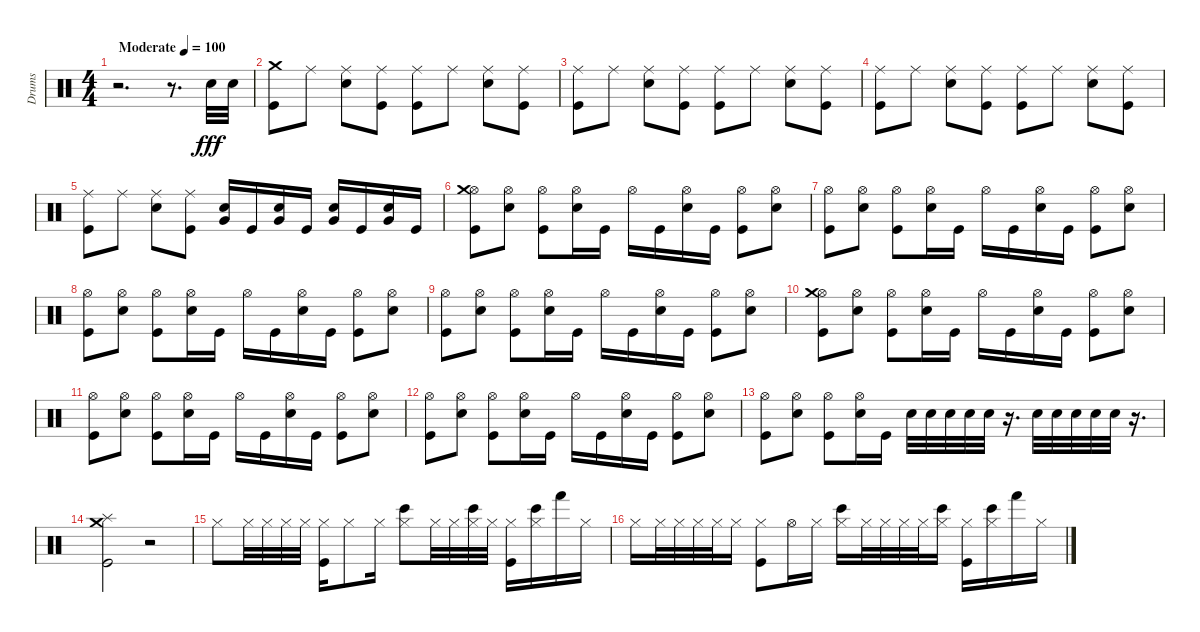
\track ("Drums" "Drums") {instrument percussion}
\staff {score}
\articulation defaults
\ts (4 4)
\tempo (100 "Moderate")
\clef neutral
\ks c
r.2{d dy fff} r.8{d} "Snare (hit) 2".32 "Snare (hit) 2".32 |
("Kick (hit)" "Crash medium (hit)").8 "Ride (middle)".8 ("Snare (hit) 2" "Ride (middle)").8 ("Kick (hit)" "Ride (middle)").8 ("Kick (hit)" "Ride (middle)").8 "Ride (middle)".8 ("Snare (hit) 2" "Ride (middle)").8 ("Kick (hit)" "Ride (middle)").8 |
("Kick (hit)" "Ride (middle)").8 "Ride (middle)".8 ("Snare (hit) 2" "Ride (middle)").8 ("Kick (hit)" "Ride (middle)").8 ("Kick (hit)" "Ride (middle)").8 "Ride (middle)".8 ("Snare (hit) 2" "Ride (middle)").8 ("Kick (hit)" "Ride (middle)").8 |
("Kick (hit)" "Ride (middle)").8 "Ride (middle)".8 ("Ride (middle)" "Snare (hit) 2").8 ("Ride (middle)" "Kick (hit)").8 ("Ride (middle)" "Kick (hit)").8 "Ride (middle)".8 ("Ride (middle)" "Snare (hit) 2").8 ("Ride (middle)" "Kick (hit)").8 |
("Kick (hit)" "Ride (middle)").8 "Ride (middle)".8 ("Ride (middle)" "Snare (hit) 2").8 ("Ride (middle)" "Kick (hit)").8 ("Snare (hit) 2" "Very Low Tom (hit)").16 "Kick (hit)".16 ("Snare (hit) 2" "Very Low Tom (hit)").16 "Kick (hit)".16 ("Snare (hit) 2" "Very Low Tom (hit)").16 "Kick (hit)".16 ("Snare (hit) 2" "Very Low Tom (hit)").16 "Kick (hit)".16 |
("Hi-Hat (open)" "Kick (hit)" "Crash medium (hit)").8 ("Hi-Hat (open)" "Snare (hit) 2").8 ("Hi-Hat (open)" "Kick (hit)").8 ("Hi-Hat (open)" "Snare (hit) 2").16 "Kick (hit)".16 "Hi-Hat (open)".16 "Kick (hit)".16 ("Hi-Hat (open)" "Snare (hit) 2").16 "Kick (hit)".16 ("Hi-Hat (open)" "Kick (hit)").8 ("Hi-Hat (open)" "Snare (hit) 2").8 |
("Hi-Hat (open)" "Kick (hit)").8 ("Hi-Hat (open)" "Snare (hit) 2").8 ("Hi-Hat (open)" "Kick (hit)").8 ("Hi-Hat (open)" "Snare (hit) 2").16 "Kick (hit)".16 "Hi-Hat (open)".16 "Kick (hit)".16 ("Hi-Hat (open)" "Snare (hit) 2").16 "Kick (hit)".16 ("Hi-Hat (open)" "Kick (hit)").8 ("Hi-Hat (open)" "Snare (hit) 2").8 |
("Hi-Hat (open)" "Kick (hit)").8 ("Hi-Hat (open)" "Snare (hit) 2").8 ("Hi-Hat (open)" "Kick (hit)").8 ("Hi-Hat (open)" "Snare (hit) 2").16 "Kick (hit)".16 "Hi-Hat (open)".16 "Kick (hit)".16 ("Hi-Hat (open)" "Snare (hit) 2").16 "Kick (hit)".16 ("Hi-Hat (open)" "Kick (hit)").8 ("Hi-Hat (open)" "Snare (hit) 2").8 |
("Hi-Hat (open)" "Kick (hit)").8 ("Hi-Hat (open)" "Snare (hit) 2").8 ("Hi-Hat (open)" "Kick (hit)").8 ("Hi-Hat (open)" "Snare (hit) 2").16 "Kick (hit)".16 "Hi-Hat (open)".16 "Kick (hit)".16 ("Hi-Hat (open)" "Snare (hit) 2").16 "Kick (hit)".16 ("Hi-Hat (open)" "Kick (hit)").8 ("Hi-Hat (open)" "Snare (hit) 2").8 |
("Hi-Hat (open)" "Kick (hit)" "Crash medium (hit)").8 ("Hi-Hat (open)" "Snare (hit) 2").8 ("Hi-Hat (open)" "Kick (hit)").8 ("Hi-Hat (open)" "Snare (hit) 2").16 "Kick (hit)".16 "Hi-Hat (open)".16 "Kick (hit)".16 ("Hi-Hat (open)" "Snare (hit) 2").16 "Kick (hit)".16 ("Hi-Hat (open)" "Kick (hit)").8 ("Hi-Hat (open)" "Snare (hit) 2").8 |
("Hi-Hat (open)" "Kick (hit)").8 ("Hi-Hat (open)" "Snare (hit) 2").8 ("Hi-Hat (open)" "Kick (hit)").8 ("Hi-Hat (open)" "Snare (hit) 2").16 "Kick (hit)".16 "Hi-Hat (open)".16 "Kick (hit)".16 ("Hi-Hat (open)" "Snare (hit) 2").16 "Kick (hit)".16 ("Hi-Hat (open)" "Kick (hit)").8 ("Hi-Hat (open)" "Snare (hit) 2").8 |
("Hi-Hat (open)" "Kick (hit)").8 ("Hi-Hat (open)" "Snare (hit) 2").8 ("Hi-Hat (open)" "Kick (hit)").8 ("Hi-Hat (open)" "Snare (hit) 2").16 "Kick (hit)".16 "Hi-Hat (open)".16 "Kick (hit)".16 ("Hi-Hat (open)" "Snare (hit) 2").16 "Kick (hit)".16 ("Hi-Hat (open)" "Kick (hit)").8 ("Hi-Hat (open)" "Snare (hit) 2").8 |
("Hi-Hat (open)" "Kick (hit)").8 ("Hi-Hat (open)" "Snare (hit) 2").8 ("Hi-Hat (open)" "Kick (hit)").8 ("Hi-Hat (open)" "Snare (hit) 2").16 "Kick (hit)".16 "Snare (hit) 2".32 "Snare (hit) 2".32 "Snare (hit) 2".32 "Snare (hit) 2".32 "Snare (hit) 2".32 r.16{d} "Snare (hit) 2".32 "Snare (hit) 2".32 "Snare (hit) 2".32 "Snare (hit) 2".32 "Snare (hit) 2".32 r.16{d} |
("Kick (hit)" "Crash medium (hit)" "Splash (hit)").2 r.2 |
"Hi-Hat (closed)".8 "Hi-Hat (closed)".32 "Hi-Hat (closed)".32 "Hi-Hat (closed)".32 "Hi-Hat (closed)".32 ("Kick (hit)" "Hi-Hat (closed)").16 "Hi-Hat (closed)".8 "Hi-Hat (closed)".16 ("Bongo High (hit)" "Hi-Hat (closed)").8 "Hi-Hat (closed)".32 "Hi-Hat (closed)".32 ("Bongo High (hit)" "Hi-Hat (closed)").32 "Hi-Hat (closed)".32 ("Kick (hit)" "Hi-Hat (closed)").16 ("Bongo High (hit)" "Hi-Hat (closed)").16 "Hand (hit)".16 "Hi-Hat (closed)".16 |
"Hi-Hat (closed)".16 "Hi-Hat (closed)".32 "Hi-Hat (closed)".32 "Hi-Hat (closed)".32 "Hi-Hat (closed)".32 "Hi-Hat (closed)".16 ("Kick (hit)" "Hi-Hat (closed)").8 "Hi-Hat (open)".16 "Hi-Hat (closed)".16 ("Hi-Hat (closed)" "Bongo High (hit)").16 "Hi-Hat (closed)".32 "Hi-Hat (closed)".32 "Hi-Hat (closed)".32 "Hi-Hat (closed)".32 ("Hi-Hat (closed)" "Bongo High (hit)").16 ("Kick (hit)" "Hi-Hat (closed)").16 ("Hi-Hat (closed)" "Bongo High (hit)").16 "Hand (hit)".16 "Hi-Hat (closed)".16
